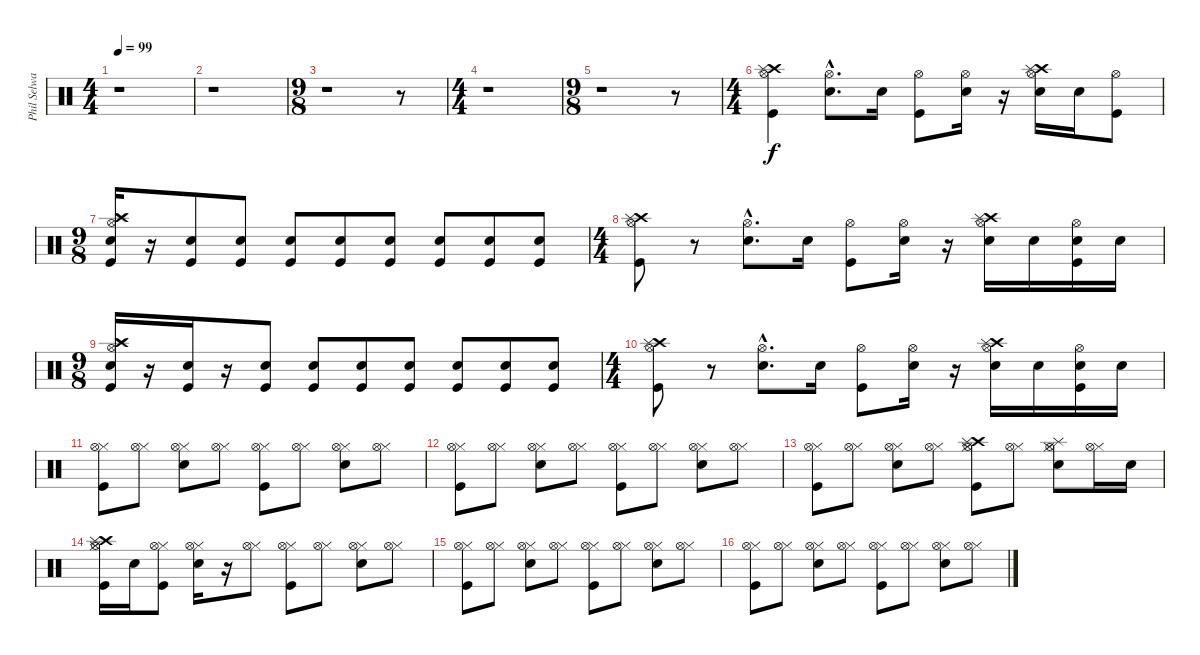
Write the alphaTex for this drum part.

\track ("Phil Selway" "Phil Selwa") {instrument percussion}
\staff {score}
\articulation defaults
\ts (4 4)
\tempo 99
\clef neutral
\ks c
r.1{dy f} |
r.1 |
\ts (9 8)
r.1 r.8 |
\ts (4 4)
r.1 |
\ts (9 8)
r.1 r.8 |
\ts (4 4)
("Kick (hit)" "Hi-Hat (open)" "Crash high (hit)" "Splash (hit)").4 ("Snare (hit) 2"{hac} "Hi-Hat (open)"{hac}).8{d} "Snare (hit) 2".16 ("Kick (hit)" "Hi-Hat (open)").8 ("Snare (hit) 2" "Hi-Hat (open)").16 r.16 ("Snare (hit) 2" "Hi-Hat (open)" "Crash high (hit)" "Splash (hit)").16 "Snare (hit) 2".16 ("Kick (hit)" "Hi-Hat (open)").8 |
\ts (9 8)
("Kick (hit)" "Snare (hit) 2" "Hi-Hat (open)" "Crash high (hit)" "Splash (hit)").16 r.16 ("Kick (hit)" "Snare (hit) 2").8 ("Kick (hit)" "Snare (hit) 2").8 ("Kick (hit)" "Snare (hit) 2").8 ("Kick (hit)" "Snare (hit) 2").8 ("Kick (hit)" "Snare (hit) 2").8 ("Kick (hit)" "Snare (hit) 2").8 ("Kick (hit)" "Snare (hit) 2").8 ("Kick (hit)" "Snare (hit) 2").8 |
\ts (4 4)
("Kick (hit)" "Hi-Hat (open)" "Crash high (hit)" "Splash (hit)").8 r.8 ("Snare (hit) 2"{hac} "Hi-Hat (open)"{hac}).8{d} "Snare (hit) 2".16 ("Kick (hit)" "Hi-Hat (open)").8 ("Snare (hit) 2" "Hi-Hat (open)").16 r.16 ("Snare (hit) 2" "Hi-Hat (open)" "Crash high (hit)" "Splash (hit)").16 "Snare (hit) 2".16 ("Kick (hit)" "Snare (hit) 2" "Hi-Hat (open)").16 "Snare (hit) 2".16 |
\ts (9 8)
("Kick (hit)" "Snare (hit) 2" "Hi-Hat (open)" "Crash high (hit)" "Splash (hit)").16 r.16 ("Kick (hit)" "Snare (hit) 2").16 r.16 ("Kick (hit)" "Snare (hit) 2").8 ("Kick (hit)" "Snare (hit) 2").8 ("Kick (hit)" "Snare (hit) 2").8 ("Kick (hit)" "Snare (hit) 2").8 ("Kick (hit)" "Snare (hit) 2").8 ("Kick (hit)" "Snare (hit) 2").8 ("Kick (hit)" "Snare (hit) 2").8 |
\ts (4 4)
("Kick (hit)" "Hi-Hat (open)" "Crash high (hit)" "Splash (hit)").8 r.8 ("Snare (hit) 2"{hac} "Hi-Hat (open)"{hac}).8{d} "Snare (hit) 2".16 ("Kick (hit)" "Hi-Hat (open)").8 ("Snare (hit) 2" "Hi-Hat (open)").16 r.16 ("Snare (hit) 2" "Hi-Hat (open)" "Crash high (hit)" "Splash (hit)").16 "Snare (hit) 2".16 ("Kick (hit)" "Snare (hit) 2" "Hi-Hat (open)").16 "Snare (hit) 2".16 |
("Kick (hit)" "Hi-Hat (closed)" "Hi-Hat (open)").8 ("Hi-Hat (closed)" "Hi-Hat (open)").8 ("Snare (hit) 2" "Hi-Hat (closed)" "Hi-Hat (open)").8 ("Hi-Hat (closed)" "Hi-Hat (open)").8 ("Kick (hit)" "Hi-Hat (closed)" "Hi-Hat (open)").8 ("Hi-Hat (closed)" "Hi-Hat (open)").8 ("Snare (hit) 2" "Hi-Hat (closed)" "Hi-Hat (open)").8 ("Hi-Hat (closed)" "Hi-Hat (open)").8 |
("Kick (hit)" "Hi-Hat (closed)" "Hi-Hat (open)").8 ("Hi-Hat (closed)" "Hi-Hat (open)").8 ("Snare (hit) 2" "Hi-Hat (closed)" "Hi-Hat (open)").8 ("Hi-Hat (closed)" "Hi-Hat (open)").8 ("Kick (hit)" "Hi-Hat (closed)" "Hi-Hat (open)").8 ("Hi-Hat (closed)" "Hi-Hat (open)").8 ("Snare (hit) 2" "Hi-Hat (closed)" "Hi-Hat (open)").8 ("Hi-Hat (closed)" "Hi-Hat (open)").8 |
("Kick (hit)" "Hi-Hat (closed)" "Hi-Hat (open)").8 ("Hi-Hat (closed)" "Hi-Hat (open)").8 ("Snare (hit) 2" "Hi-Hat (closed)" "Hi-Hat (open)").8 ("Hi-Hat (closed)" "Hi-Hat (open)").8 ("Kick (hit)" "Hi-Hat (closed)" "Hi-Hat (open)" "Crash high (hit)" "Splash (hit)").8 ("Hi-Hat (closed)" "Hi-Hat (open)").8 ("Snare (hit) 2" "Hi-Hat (closed)" "Hi-Hat (open)" "Splash (hit)").8 ("Hi-Hat (closed)" "Hi-Hat (open)").16 "Snare (hit) 2".16 |
("Kick (hit)" "Hi-Hat (closed)" "Hi-Hat (open)" "Crash high (hit)" "Splash (hit)").16 "Snare (hit) 2".16 ("Kick (hit)" "Hi-Hat (closed)" "Hi-Hat (open)").8 ("Snare (hit) 2" "Hi-Hat (closed)" "Hi-Hat (open)").16 r.16 ("Hi-Hat (closed)" "Hi-Hat (open)").8 ("Kick (hit)" "Hi-Hat (closed)" "Hi-Hat (open)").8 ("Hi-Hat (closed)" "Hi-Hat (open)").8 ("Snare (hit) 2" "Hi-Hat (closed)" "Hi-Hat (open)").8 ("Hi-Hat (closed)" "Hi-Hat (open)").8 |
("Kick (hit)" "Hi-Hat (closed)" "Hi-Hat (open)").8 ("Hi-Hat (closed)" "Hi-Hat (open)").8 ("Snare (hit) 2" "Hi-Hat (closed)" "Hi-Hat (open)").8 ("Hi-Hat (closed)" "Hi-Hat (open)").8 ("Kick (hit)" "Hi-Hat (closed)" "Hi-Hat (open)").8 ("Hi-Hat (closed)" "Hi-Hat (open)").8 ("Snare (hit) 2" "Hi-Hat (closed)" "Hi-Hat (open)").8 ("Hi-Hat (closed)" "Hi-Hat (open)").8 |
("Kick (hit)" "Hi-Hat (closed)" "Hi-Hat (open)").8 ("Hi-Hat (closed)" "Hi-Hat (open)").8 ("Snare (hit) 2" "Hi-Hat (closed)" "Hi-Hat (open)").8 ("Hi-Hat (closed)" "Hi-Hat (open)").8 ("Kick (hit)" "Hi-Hat (closed)" "Hi-Hat (open)").8 ("Hi-Hat (closed)" "Hi-Hat (open)").8 ("Snare (hit) 2" "Hi-Hat (closed)" "Hi-Hat (open)").8 ("Hi-Hat (closed)" "Hi-Hat (open)").8
